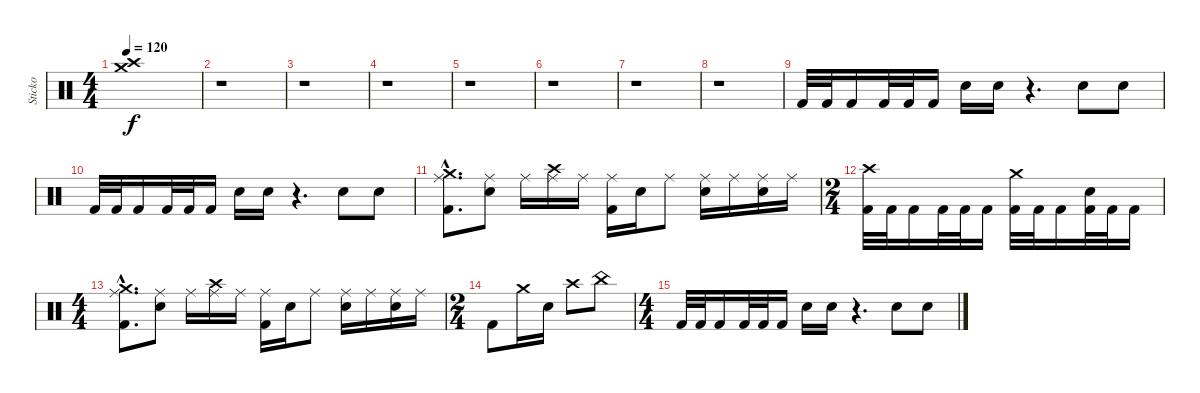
\track ("Sticko" "Sticko") {instrument percussion}
\staff {score}
\articulation defaults
\ts (4 4)
\tempo 120
\clef neutral
\ks c
("Crash high (hit)" "Crash medium (hit)").1{dy f} |
r.1 |
r.1 |
r.1 |
r.1 |
r.1 |
r.1 |
r.1 |
"Kick (hit) 2".32 "Kick (hit) 2".32 "Kick (hit) 2".16 "Kick (hit) 2".32 "Kick (hit) 2".32 "Kick (hit) 2".16 "Snare (hit) 2".16 "Snare (hit) 2".16 r.4{d} "Snare (hit) 2".8 "Snare (hit) 2".8 |
"Kick (hit) 2".32 "Kick (hit) 2".32 "Kick (hit) 2".16 "Kick (hit) 2".32 "Kick (hit) 2".32 "Kick (hit) 2".16 "Snare (hit) 2".16 "Snare (hit) 2".16 r.4{d} "Snare (hit) 2".8 "Snare (hit) 2".8 |
("Crash medium (hit)"{hac} "Ride (middle)"{hac} "Kick (hit) 2"{hac}).8{d} ("Snare (hit) 2" "Ride (middle)").8 "Ride (middle)".16 ("Crash high (hit)" "Ride (middle)").16 "Ride (middle)".16 ("Ride (middle)" "Kick (hit) 2").16 "Snare (hit) 2".16 "Ride (middle)".8 ("Snare (hit) 2" "Ride (middle)").16 "Ride (middle)".16 ("Snare (hit) 2" "Ride (middle)").16 "Ride (middle)".16 |
\ts (2 4)
("Crash high (hit)" "Kick (hit) 2").32 "Kick (hit) 2".32 "Kick (hit) 2".16 "Kick (hit) 2".32 "Kick (hit) 2".32 "Kick (hit) 2".16 ("Crash medium (hit)" "Kick (hit) 2").32 "Kick (hit) 2".32 "Kick (hit) 2".16 ("Snare (hit) 2" "Kick (hit) 2").32 "Kick (hit) 2".32 "Kick (hit) 2".16 |
\ts (4 4)
("Crash medium (hit)"{hac} "Ride (middle)"{hac} "Kick (hit) 2"{hac}).8{d} ("Snare (hit) 2" "Ride (middle)").8 "Ride (middle)".16 ("Crash high (hit)" "Ride (middle)").16 "Ride (middle)".16 ("Ride (middle)" "Kick (hit) 2").16 "Snare (hit) 2".16 "Ride (middle)".8 ("Snare (hit) 2" "Ride (middle)").16 "Ride (middle)".16 ("Snare (hit) 2" "Ride (middle)").16 "Ride (middle)".16 |
\ts (2 4)
"Kick (hit) 2".8 "Crash medium (hit)".16 "Snare (hit) 2".16 "Crash high (hit)".8 "China (hit)".8 |
\ts (4 4)
"Kick (hit) 2".32 "Kick (hit) 2".32 "Kick (hit) 2".16 "Kick (hit) 2".32 "Kick (hit) 2".32 "Kick (hit) 2".16 "Snare (hit) 2".16 "Snare (hit) 2".16 r.4{d} "Snare (hit) 2".8 "Snare (hit) 2".8
